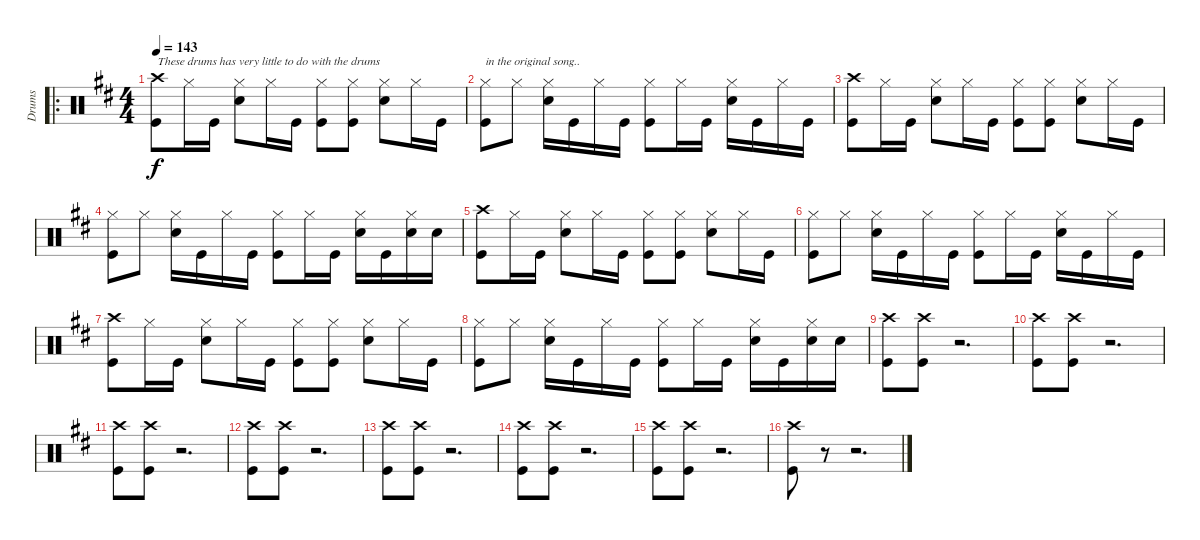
\track ("Drums" "Drums") {instrument percussion}
\staff {score}
\articulation defaults
\ro
\ts (4 4)
\tempo 143
\clef neutral
\ks bminor
("Crash high (hit)" "Kick (hit)").8{txt "These drums has very little to do with the drums" dy f} "Hi-Hat (closed)".16 "Kick (hit)".16 ("Hi-Hat (closed)" "Snare (hit) 2").8 "Hi-Hat (closed)".16 "Kick (hit)".16 ("Hi-Hat (closed)" "Kick (hit)").8 ("Hi-Hat (closed)" "Kick (hit)").8 ("Hi-Hat (closed)" "Snare (hit) 2").8 "Hi-Hat (closed)".16 "Kick (hit)".16 |
("Hi-Hat (closed)" "Kick (hit)").8{txt "in the original song.. "} "Hi-Hat (closed)".8 ("Hi-Hat (closed)" "Snare (hit) 2").16 "Kick (hit)".16 "Hi-Hat (closed)".16 "Kick (hit)".16 ("Hi-Hat (closed)" "Kick (hit)").8 "Hi-Hat (closed)".16 "Kick (hit)".16 ("Hi-Hat (closed)" "Snare (hit) 2").16 "Kick (hit)".16 "Hi-Hat (closed)".16 "Kick (hit)".16 |
("Crash high (hit)" "Kick (hit)").8 "Hi-Hat (closed)".16 "Kick (hit)".16 ("Hi-Hat (closed)" "Snare (hit) 2").8 "Hi-Hat (closed)".16 "Kick (hit)".16 ("Hi-Hat (closed)" "Kick (hit)").8 ("Hi-Hat (closed)" "Kick (hit)").8 ("Hi-Hat (closed)" "Snare (hit) 2").8 "Hi-Hat (closed)".16 "Kick (hit)".16 |
("Hi-Hat (closed)" "Kick (hit)").8 "Hi-Hat (closed)".8 ("Hi-Hat (closed)" "Snare (hit) 2").16 "Kick (hit)".16 "Hi-Hat (closed)".16 "Kick (hit)".16 ("Hi-Hat (closed)" "Kick (hit)").8 "Hi-Hat (closed)".16 "Kick (hit)".16 ("Hi-Hat (closed)" "Snare (hit) 2").16 "Kick (hit)".16 ("Hi-Hat (closed)" "Snare (hit) 2").16 "Snare (hit) 2".16 |
("Crash high (hit)" "Kick (hit)").8 "Hi-Hat (closed)".16 "Kick (hit)".16 ("Hi-Hat (closed)" "Snare (hit) 2").8 "Hi-Hat (closed)".16 "Kick (hit)".16 ("Hi-Hat (closed)" "Kick (hit)").8 ("Hi-Hat (closed)" "Kick (hit)").8 ("Hi-Hat (closed)" "Snare (hit) 2").8 "Hi-Hat (closed)".16 "Kick (hit)".16 |
("Hi-Hat (closed)" "Kick (hit)").8 "Hi-Hat (closed)".8 ("Hi-Hat (closed)" "Snare (hit) 2").16 "Kick (hit)".16 "Hi-Hat (closed)".16 "Kick (hit)".16 ("Hi-Hat (closed)" "Kick (hit)").8 "Hi-Hat (closed)".16 "Kick (hit)".16 ("Hi-Hat (closed)" "Snare (hit) 2").16 "Kick (hit)".16 "Hi-Hat (closed)".16 "Kick (hit)".16 |
("Crash high (hit)" "Kick (hit)").8 "Hi-Hat (closed)".16 "Kick (hit)".16 ("Hi-Hat (closed)" "Snare (hit) 2").8 "Hi-Hat (closed)".16 "Kick (hit)".16 ("Hi-Hat (closed)" "Kick (hit)").8 ("Hi-Hat (closed)" "Kick (hit)").8 ("Hi-Hat (closed)" "Snare (hit) 2").8 "Hi-Hat (closed)".16 "Kick (hit)".16 |
("Hi-Hat (closed)" "Kick (hit)").8 "Hi-Hat (closed)".8 ("Hi-Hat (closed)" "Snare (hit) 2").16 "Kick (hit)".16 "Hi-Hat (closed)".16 "Kick (hit)".16 ("Hi-Hat (closed)" "Kick (hit)").8 "Hi-Hat (closed)".16 "Kick (hit)".16 ("Hi-Hat (closed)" "Snare (hit) 2").16 "Kick (hit)".16 ("Hi-Hat (closed)" "Snare (hit) 2").16 "Snare (hit) 2".16 |
("Crash high (hit)" "Kick (hit)").8 ("Crash high (hit)" "Kick (hit)").8 r.2{d} |
("Crash high (hit)" "Kick (hit)").8 ("Crash high (hit)" "Kick (hit)").8 r.2{d} |
("Crash high (hit)" "Kick (hit)").8 ("Crash high (hit)" "Kick (hit)").8 r.2{d} |
("Crash high (hit)" "Kick (hit)").8 ("Crash high (hit)" "Kick (hit)").8 r.2{d} |
("Crash high (hit)" "Kick (hit)").8 ("Crash high (hit)" "Kick (hit)").8 r.2{d} |
("Crash high (hit)" "Kick (hit)").8 ("Crash high (hit)" "Kick (hit)").8 r.2{d} |
("Crash high (hit)" "Kick (hit)").8 ("Crash high (hit)" "Kick (hit)").8 r.2{d} |
("Crash high (hit)" "Kick (hit)").8 r.8 r.2{d}
